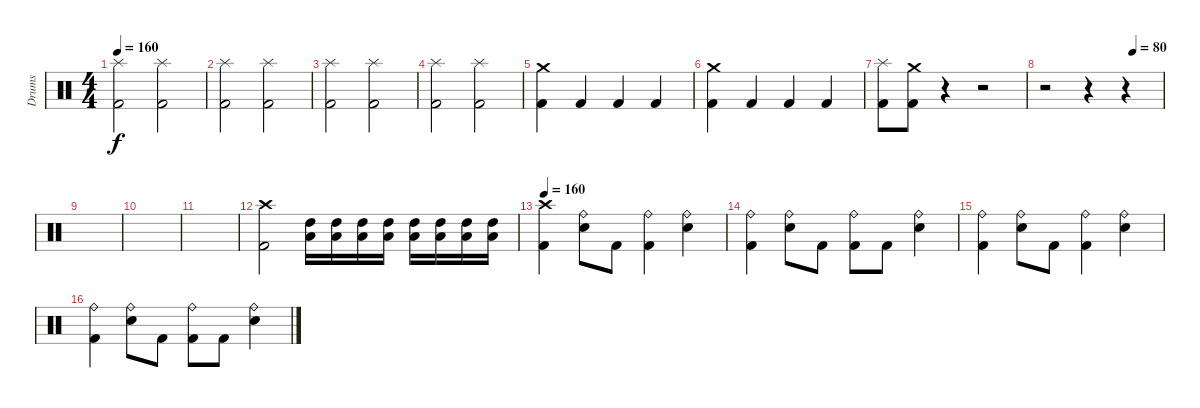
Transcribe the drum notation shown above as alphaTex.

\track ("Drums" "Drums") {instrument percussion}
\staff {score}
\articulation defaults
\ts (4 4)
\tempo 160
\clef neutral
\ks c
("Splash (hit)" "Kick (hit) 2").2{dy f} ("Splash (hit)" "Kick (hit) 2").2 |
("Splash (hit)" "Kick (hit) 2").2 ("Splash (hit)" "Kick (hit) 2").2 |
("Splash (hit)" "Kick (hit) 2").2 ("Splash (hit)" "Kick (hit) 2").2 |
("Splash (hit)" "Kick (hit) 2").2 ("Splash (hit)" "Kick (hit) 2").2 |
("Crash medium (hit)" "Kick (hit) 2").4 "Kick (hit) 2".4 "Kick (hit) 2".4 "Kick (hit) 2".4 |
("Crash medium (hit)" "Kick (hit) 2").4 "Kick (hit) 2".4 "Kick (hit) 2".4 "Kick (hit) 2".4 |
("Splash (hit)" "Kick (hit) 2").8 ("Crash medium (hit)" "Kick (hit) 2").8 r.4 r.2 |
\tempo (80 0.75)
r.2 r.4 r.4 |
|
|
|
("Crash high (hit)" "Kick (hit) 2").2 ("Low Tom (hit)" "High Tom (hit)").16 ("Low Tom (hit)" "High Tom (hit)").16 ("Low Tom (hit)" "High Tom (hit)").16 ("Low Tom (hit)" "High Tom (hit)").16 ("Low Tom (hit)" "High Tom (hit)").16 ("Low Tom (hit)" "High Tom (hit)").16 ("Low Tom (hit)" "High Tom (hit)").16 ("Low Tom (hit)" "High Tom (hit)").16 |
\tempo 160
("Crash high (hit)" "Kick (hit) 2").4 ("Ride (bell)" "Electric Snare (hit)").8 "Kick (hit) 2".8 ("Ride (bell)" "Kick (hit) 2").4 ("Ride (bell)" "Electric Snare (hit)").4 |
("Ride (bell)" "Kick (hit) 2").4 ("Ride (bell)" "Electric Snare (hit)").8 "Kick (hit) 2".8 ("Ride (bell)" "Kick (hit) 2").8 "Kick (hit) 2".8 ("Ride (bell)" "Electric Snare (hit)").4 |
("Ride (bell)" "Kick (hit) 2").4 ("Ride (bell)" "Electric Snare (hit)").8 "Kick (hit) 2".8 ("Ride (bell)" "Kick (hit) 2").4 ("Ride (bell)" "Electric Snare (hit)").4 |
("Ride (bell)" "Kick (hit) 2").4 ("Ride (bell)" "Electric Snare (hit)").8 "Kick (hit) 2".8 ("Ride (bell)" "Kick (hit) 2").8 "Kick (hit) 2".8 ("Ride (bell)" "Electric Snare (hit)").4
